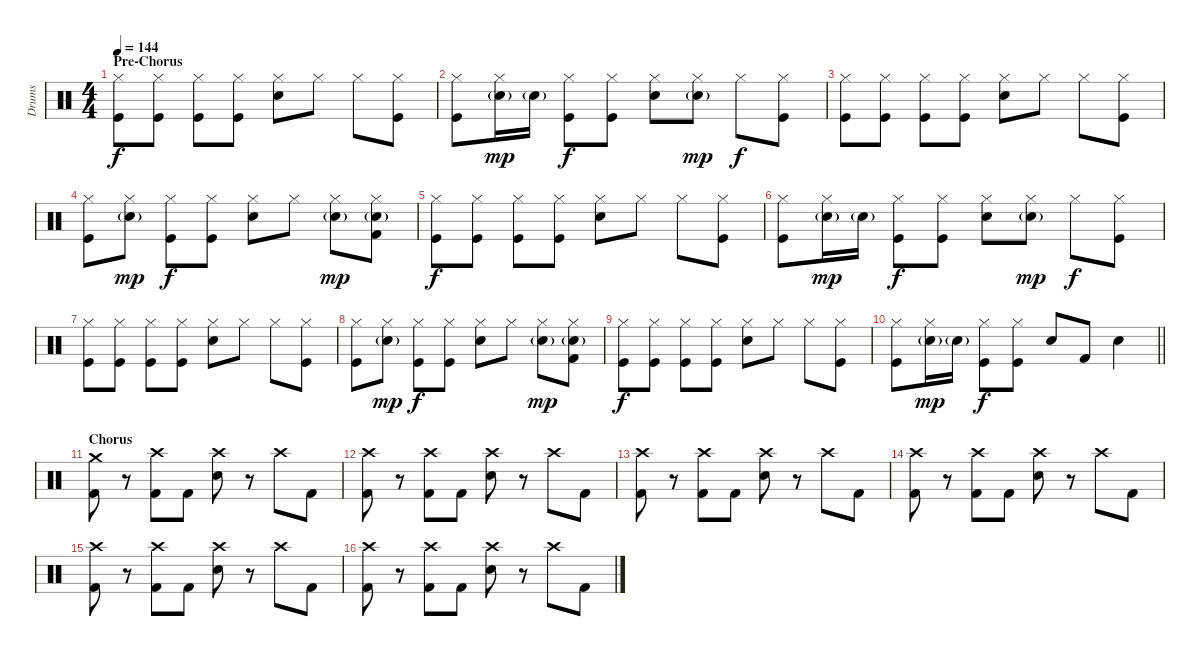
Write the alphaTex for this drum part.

\track ("Drums" "Drums") {instrument percussion}
\staff {score}
\articulation defaults
\ts (4 4)
\section ("" "Pre-Chorus")
\tempo 144
\clef neutral
\ks c
("Hi-Hat (closed)" "Kick (hit)").8{dy f} ("Hi-Hat (closed)" "Kick (hit)").8 ("Hi-Hat (closed)" "Kick (hit)").8 ("Hi-Hat (closed)" "Kick (hit)").8 ("Hi-Hat (closed)" "Snare (hit) 2").8 "Hi-Hat (closed)".8 "Hi-Hat (closed)".8 ("Hi-Hat (closed)" "Kick (hit)").8 |
("Hi-Hat (closed)" "Kick (hit)").8 ("Hi-Hat (closed)" "Electric Snare (hit)"{g}).16{dy mp} "Electric Snare (hit)"{g}.16 ("Hi-Hat (closed)" "Kick (hit)").8{dy f} ("Hi-Hat (closed)" "Kick (hit)").8 ("Hi-Hat (closed)" "Snare (hit) 2").8 ("Hi-Hat (closed)" "Electric Snare (hit)"{g}).8{dy mp} "Hi-Hat (closed)".8{dy f} ("Hi-Hat (closed)" "Kick (hit)").8 |
("Hi-Hat (closed)" "Kick (hit)").8 ("Hi-Hat (closed)" "Kick (hit)").8 ("Hi-Hat (closed)" "Kick (hit)").8 ("Hi-Hat (closed)" "Kick (hit)").8 ("Hi-Hat (closed)" "Snare (hit) 2").8 "Hi-Hat (closed)".8 "Hi-Hat (closed)".8 ("Hi-Hat (closed)" "Kick (hit)").8 |
("Hi-Hat (closed)" "Kick (hit)").8 ("Hi-Hat (closed)" "Electric Snare (hit)"{g}).8{dy mp} ("Hi-Hat (closed)" "Kick (hit)").8{dy f} ("Hi-Hat (closed)" "Kick (hit)").8 ("Hi-Hat (closed)" "Snare (hit) 2").8 "Hi-Hat (closed)".8 ("Hi-Hat (closed)" "Electric Snare (hit)"{g}).8{dy mp} ("Hi-Hat (closed)" "Electric Snare (hit)"{g} "Kick (hit) 2").8 |
("Hi-Hat (closed)" "Kick (hit)").8{dy f} ("Hi-Hat (closed)" "Kick (hit)").8 ("Hi-Hat (closed)" "Kick (hit)").8 ("Hi-Hat (closed)" "Kick (hit)").8 ("Hi-Hat (closed)" "Snare (hit) 2").8 "Hi-Hat (closed)".8 "Hi-Hat (closed)".8 ("Hi-Hat (closed)" "Kick (hit)").8 |
("Hi-Hat (closed)" "Kick (hit)").8 ("Hi-Hat (closed)" "Electric Snare (hit)"{g}).16{dy mp} "Electric Snare (hit)"{g}.16 ("Hi-Hat (closed)" "Kick (hit)").8{dy f} ("Hi-Hat (closed)" "Kick (hit)").8 ("Hi-Hat (closed)" "Snare (hit) 2").8 ("Hi-Hat (closed)" "Electric Snare (hit)"{g}).8{dy mp} "Hi-Hat (closed)".8{dy f} ("Hi-Hat (closed)" "Kick (hit)").8 |
("Hi-Hat (closed)" "Kick (hit)").8 ("Hi-Hat (closed)" "Kick (hit)").8 ("Hi-Hat (closed)" "Kick (hit)").8 ("Hi-Hat (closed)" "Kick (hit)").8 ("Hi-Hat (closed)" "Snare (hit) 2").8 "Hi-Hat (closed)".8 "Hi-Hat (closed)".8 ("Hi-Hat (closed)" "Kick (hit)").8 |
("Hi-Hat (closed)" "Kick (hit)").8 ("Hi-Hat (closed)" "Electric Snare (hit)"{g}).8{dy mp} ("Hi-Hat (closed)" "Kick (hit)").8{dy f} ("Hi-Hat (closed)" "Kick (hit)").8 ("Hi-Hat (closed)" "Snare (hit) 2").8 "Hi-Hat (closed)".8 ("Hi-Hat (closed)" "Electric Snare (hit)"{g}).8{dy mp} ("Hi-Hat (closed)" "Electric Snare (hit)"{g} "Kick (hit) 2").8 |
("Hi-Hat (closed)" "Kick (hit)").8{dy f} ("Hi-Hat (closed)" "Kick (hit)").8 ("Hi-Hat (closed)" "Kick (hit)").8 ("Hi-Hat (closed)" "Kick (hit)").8 ("Hi-Hat (closed)" "Snare (hit) 2").8 "Hi-Hat (closed)".8 "Hi-Hat (closed)".8 ("Hi-Hat (closed)" "Kick (hit)").8 |
\barLineRight lightlight
("Hi-Hat (closed)" "Kick (hit)").8 ("Hi-Hat (closed)" "Electric Snare (hit)"{g}).16{dy mp} "Electric Snare (hit)"{g}.16 ("Hi-Hat (closed)" "Kick (hit)").8{dy f} ("Hi-Hat (closed)" "Kick (hit)").8 "Electric Snare (hit)".8 "Kick (hit) 2".8 "Electric Snare (hit)".4 |
\section ("" "Chorus")
("Crash medium (hit)" "Kick (hit) 2").8 r.8 ("Crash high (hit)" "Kick (hit) 2").8 "Kick (hit) 2".8 ("Crash high (hit)" "Electric Snare (hit)").8 r.8 "Crash high (hit)".8 "Kick (hit) 2".8 |
("Crash high (hit)" "Kick (hit) 2").8 r.8 ("Crash high (hit)" "Kick (hit) 2").8 "Kick (hit) 2".8 ("Crash high (hit)" "Electric Snare (hit)").8 r.8 "Crash high (hit)".8 "Kick (hit) 2".8 |
("Crash high (hit)" "Kick (hit) 2").8 r.8 ("Crash high (hit)" "Kick (hit) 2").8 "Kick (hit) 2".8 ("Crash high (hit)" "Electric Snare (hit)").8 r.8 "Crash high (hit)".8 "Kick (hit) 2".8 |
("Crash high (hit)" "Kick (hit) 2").8 r.8 ("Crash high (hit)" "Kick (hit) 2").8 "Kick (hit) 2".8 ("Crash high (hit)" "Electric Snare (hit)").8 r.8 "Crash high (hit)".8 "Kick (hit) 2".8 |
("Crash high (hit)" "Kick (hit) 2").8 r.8 ("Crash high (hit)" "Kick (hit) 2").8 "Kick (hit) 2".8 ("Crash high (hit)" "Electric Snare (hit)").8 r.8 "Crash high (hit)".8 "Kick (hit) 2".8 |
("Crash high (hit)" "Kick (hit) 2").8 r.8 ("Crash high (hit)" "Kick (hit) 2").8 "Kick (hit) 2".8 ("Crash high (hit)" "Electric Snare (hit)").8 r.8 "Crash high (hit)".8 "Kick (hit) 2".8
